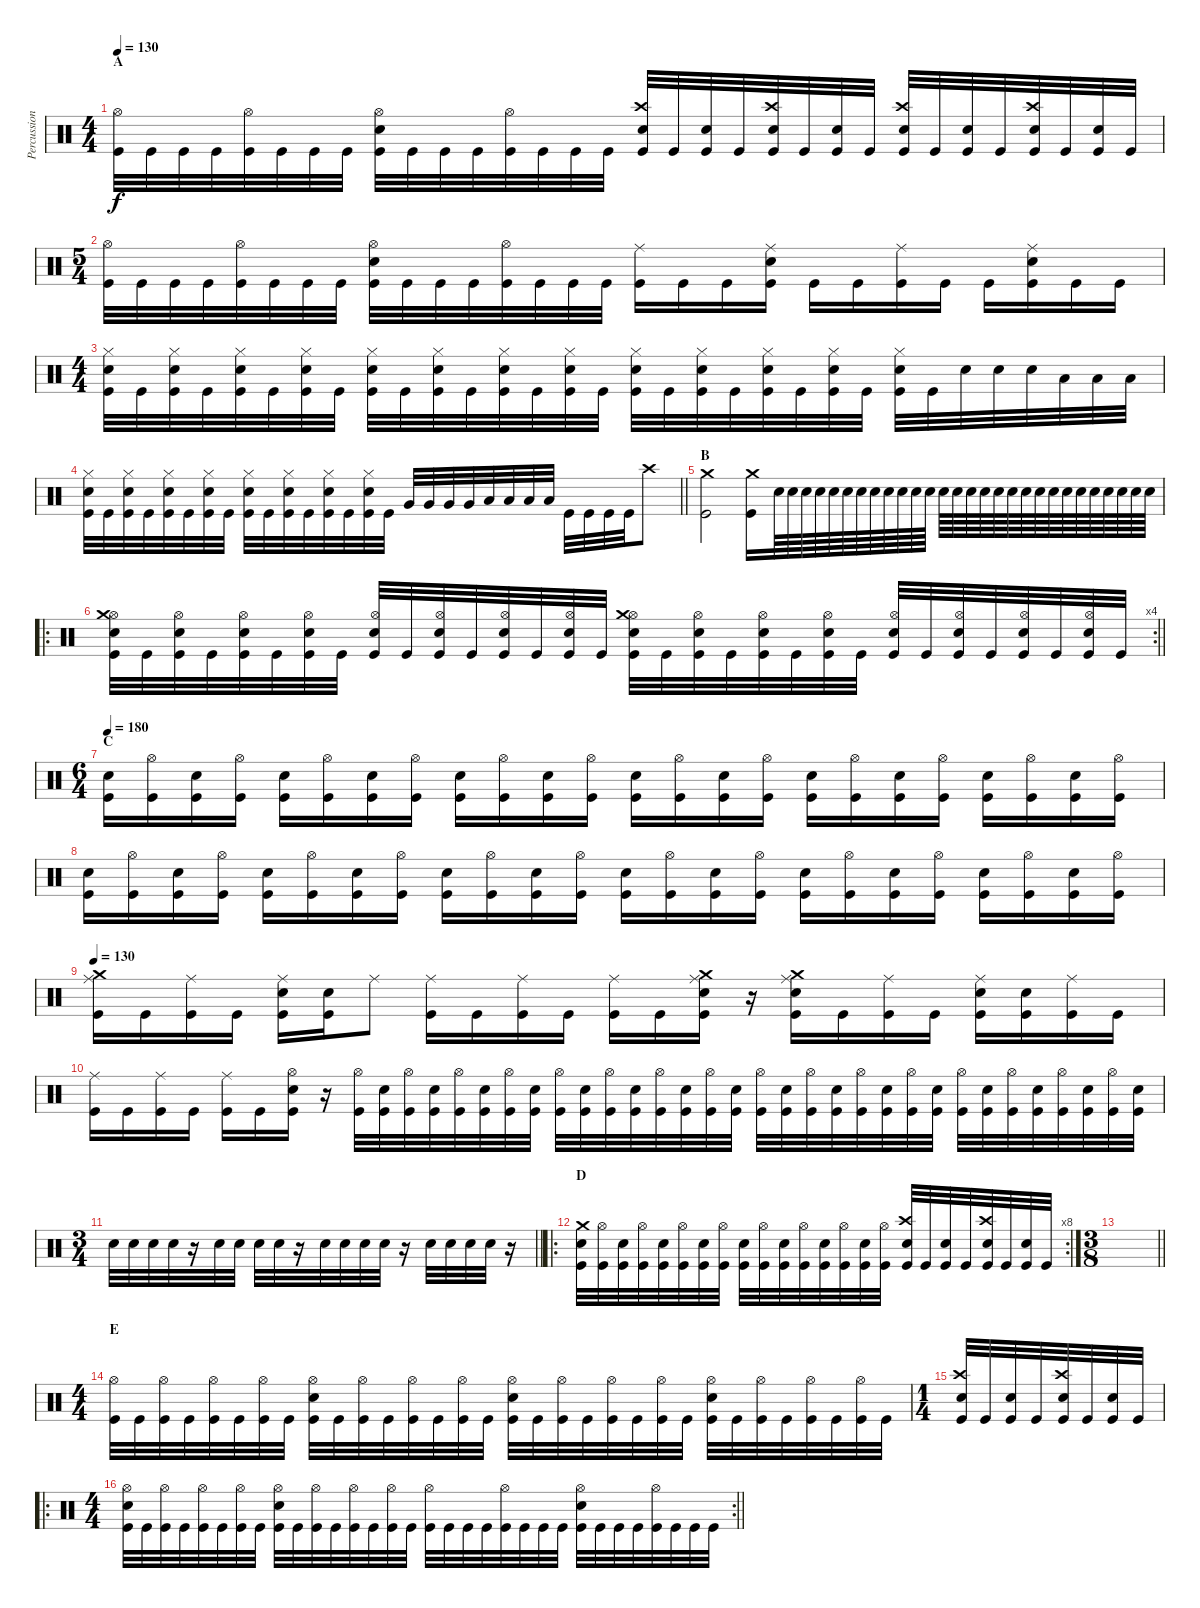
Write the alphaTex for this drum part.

\track ("Percussion" "Percussion") {instrument percussion}
\staff {score}
\articulation defaults
\ts (4 4)
\section ("" "A")
\tempo 130
\clef neutral
\ks c
("Kick (hit)" "Hi-Hat (open)").32{dy f} "Kick (hit)".32 "Kick (hit)".32 "Kick (hit)".32 ("Kick (hit)" "Hi-Hat (open)").32 "Kick (hit)".32 "Kick (hit)".32 "Kick (hit)".32 ("Kick (hit)" "Hi-Hat (open)" "Electric Snare (hit)").32 "Kick (hit)".32 "Kick (hit)".32 "Kick (hit)".32 ("Kick (hit)" "Hi-Hat (open)").32 "Kick (hit)".32 "Kick (hit)".32 "Kick (hit)".32 ("Kick (hit)" "Crash high (hit)" "Snare (hit) 2").32 "Kick (hit)".32 ("Kick (hit)" "Snare (hit) 2").32 "Kick (hit)".32 ("Kick (hit)" "Crash high (hit)" "Snare (hit) 2").32 "Kick (hit)".32 ("Kick (hit)" "Snare (hit) 2").32 "Kick (hit)".32 ("Kick (hit)" "Crash high (hit)" "Snare (hit) 2").32 "Kick (hit)".32 ("Kick (hit)" "Snare (hit) 2").32 "Kick (hit)".32 ("Kick (hit)" "Crash high (hit)" "Snare (hit) 2").32 "Kick (hit)".32 ("Kick (hit)" "Snare (hit) 2").32 "Kick (hit)".32 |
\ts (5 4)
("Kick (hit)" "Hi-Hat (open)").32 "Kick (hit)".32 "Kick (hit)".32 "Kick (hit)".32 ("Kick (hit)" "Hi-Hat (open)").32 "Kick (hit)".32 "Kick (hit)".32 "Kick (hit)".32 ("Kick (hit)" "Hi-Hat (open)" "Electric Snare (hit)").32 "Kick (hit)".32 "Kick (hit)".32 "Kick (hit)".32 ("Kick (hit)" "Hi-Hat (open)").32 "Kick (hit)".32 "Kick (hit)".32 "Kick (hit)".32 ("Kick (hit)" "Ride (middle)").16 "Kick (hit)".16 "Kick (hit)".16 ("Kick (hit)" "Ride (middle)" "Snare (hit) 2").16 "Kick (hit)".16 "Kick (hit)".16 ("Kick (hit)" "Ride (middle)").16 "Kick (hit)".16 "Kick (hit)".16 ("Kick (hit)" "Ride (middle)" "Snare (hit) 2").16 "Kick (hit)".16 "Kick (hit)".16 |
\ts (4 4)
("Kick (hit)" "Snare (hit) 2" "Hi-Hat (closed)").32 "Kick (hit)".32 ("Kick (hit)" "Snare (hit) 2" "Hi-Hat (closed)").32 "Kick (hit)".32 ("Kick (hit)" "Snare (hit) 2" "Hi-Hat (closed)").32 "Kick (hit)".32 ("Kick (hit)" "Snare (hit) 2" "Hi-Hat (closed)").32 "Kick (hit)".32 ("Kick (hit)" "Snare (hit) 2" "Hi-Hat (closed)").32 "Kick (hit)".32 ("Kick (hit)" "Snare (hit) 2" "Hi-Hat (closed)").32 "Kick (hit)".32 ("Kick (hit)" "Snare (hit) 2" "Hi-Hat (closed)").32 "Kick (hit)".32 ("Kick (hit)" "Snare (hit) 2" "Hi-Hat (closed)").32 "Kick (hit)".32 ("Kick (hit)" "Snare (hit) 2" "Hi-Hat (closed)").32 "Kick (hit)".32 ("Kick (hit)" "Snare (hit) 2" "Hi-Hat (closed)").32 "Kick (hit)".32 ("Kick (hit)" "Snare (hit) 2" "Hi-Hat (closed)").32 "Kick (hit)".32 ("Kick (hit)" "Snare (hit) 2" "Hi-Hat (closed)").32 "Kick (hit)".32 ("Kick (hit)" "Snare (hit) 2" "Hi-Hat (closed)").32 "Kick (hit)".32 "Snare (hit) 2".32 "Snare (hit) 2".32 "Snare (hit) 2".32 "Low Floor Tom (hit)".32 "Low Floor Tom (hit)".32 "Low Floor Tom (hit)".32 |
\barLineRight lightlight
("Kick (hit)" "Snare (hit) 2" "Hi-Hat (closed)").32 "Kick (hit)".32 ("Kick (hit)" "Snare (hit) 2" "Hi-Hat (closed)").32 "Kick (hit)".32 ("Kick (hit)" "Snare (hit) 2" "Hi-Hat (closed)").32 "Kick (hit)".32 ("Kick (hit)" "Snare (hit) 2" "Hi-Hat (closed)").32 "Kick (hit)".32 ("Kick (hit)" "Snare (hit) 2" "Hi-Hat (closed)").32 "Kick (hit)".32 ("Kick (hit)" "Snare (hit) 2" "Hi-Hat (closed)").32 "Kick (hit)".32 ("Kick (hit)" "Snare (hit) 2" "Hi-Hat (closed)").32 "Kick (hit)".32 ("Kick (hit)" "Snare (hit) 2" "Hi-Hat (closed)").32 "Kick (hit)".32 "Very Low Tom (hit)".32 "Very Low Tom (hit)".32 "Very Low Tom (hit)".32 "Very Low Tom (hit)".32 "Low Floor Tom (hit)".32 "Low Floor Tom (hit)".32 "Low Floor Tom (hit)".32 "Low Floor Tom (hit)".32 "Kick (hit)".32 "Kick (hit)".32 "Kick (hit)".32 "Kick (hit)".32 "Crash high (hit)".8 |
\section ("" "B")
("Kick (hit)" "Crash medium (hit)").2 ("Kick (hit)" "Crash medium (hit)").16 "Snare (hit) 2".64{volume 4} "Snare (hit) 2".64{volume 15} "Snare (hit) 2".64 "Snare (hit) 2".64 "Snare (hit) 2".64 "Snare (hit) 2".64 "Snare (hit) 2".64 "Snare (hit) 2".64 "Snare (hit) 2".64 "Snare (hit) 2".64 "Snare (hit) 2".64 "Snare (hit) 2".64 "Snare (hit) 2".64 "Snare (hit) 2".64 "Snare (hit) 2".64 "Snare (hit) 2".64 "Snare (hit) 2".64 "Snare (hit) 2".64 "Snare (hit) 2".64 "Snare (hit) 2".64 "Snare (hit) 2".64 "Snare (hit) 2".64 "Snare (hit) 2".64 "Snare (hit) 2".64 "Snare (hit) 2".64 "Snare (hit) 2".64 "Snare (hit) 2".64 "Snare (hit) 2".64 |
\ro
\rc 4
\barLineRight lightlight
("Kick (hit)" "Hi-Hat (open)" "Snare (hit) 2" "Crash medium (hit)").32 "Kick (hit)".32 ("Kick (hit)" "Snare (hit) 2" "Hi-Hat (open)").32 "Kick (hit)".32 ("Kick (hit)" "Snare (hit) 2" "Hi-Hat (open)").32 "Kick (hit)".32 ("Kick (hit)" "Snare (hit) 2" "Hi-Hat (open)").32 "Kick (hit)".32 ("Kick (hit)" "Snare (hit) 2" "Hi-Hat (open)").32 "Kick (hit)".32 ("Kick (hit)" "Snare (hit) 2" "Hi-Hat (open)").32 "Kick (hit)".32 ("Kick (hit)" "Snare (hit) 2" "Hi-Hat (open)").32 "Kick (hit)".32 ("Kick (hit)" "Snare (hit) 2" "Hi-Hat (open)").32 "Kick (hit)".32 ("Kick (hit)" "Hi-Hat (open)" "Snare (hit) 2" "Crash medium (hit)").32 "Kick (hit)".32 ("Kick (hit)" "Snare (hit) 2" "Hi-Hat (open)").32 "Kick (hit)".32 ("Kick (hit)" "Snare (hit) 2" "Hi-Hat (open)").32 "Kick (hit)".32 ("Kick (hit)" "Snare (hit) 2" "Hi-Hat (open)").32 "Kick (hit)".32 ("Kick (hit)" "Snare (hit) 2" "Hi-Hat (open)").32 "Kick (hit)".32 ("Kick (hit)" "Snare (hit) 2" "Hi-Hat (open)").32 "Kick (hit)".32 ("Kick (hit)" "Snare (hit) 2" "Hi-Hat (open)").32 "Kick (hit)".32 ("Kick (hit)" "Snare (hit) 2" "Hi-Hat (open)").32 "Kick (hit)".32 |
\ts (6 4)
\section ("" "C")
\tempo 180
("Kick (hit)" "Snare (hit) 2").16 ("Kick (hit)" "Hi-Hat (open)").16 ("Kick (hit)" "Snare (hit) 2").16 ("Kick (hit)" "Hi-Hat (open)").16 ("Kick (hit)" "Snare (hit) 2").16 ("Kick (hit)" "Hi-Hat (open)").16 ("Kick (hit)" "Snare (hit) 2").16 ("Kick (hit)" "Hi-Hat (open)").16 ("Kick (hit)" "Snare (hit) 2").16 ("Kick (hit)" "Hi-Hat (open)").16 ("Kick (hit)" "Snare (hit) 2").16 ("Kick (hit)" "Hi-Hat (open)").16 ("Kick (hit)" "Snare (hit) 2").16 ("Kick (hit)" "Hi-Hat (open)").16 ("Kick (hit)" "Snare (hit) 2").16 ("Kick (hit)" "Hi-Hat (open)").16 ("Kick (hit)" "Snare (hit) 2").16 ("Kick (hit)" "Hi-Hat (open)").16 ("Kick (hit)" "Snare (hit) 2").16 ("Kick (hit)" "Hi-Hat (open)").16 ("Kick (hit)" "Snare (hit) 2").16 ("Kick (hit)" "Hi-Hat (open)").16 ("Kick (hit)" "Snare (hit) 2").16 ("Kick (hit)" "Hi-Hat (open)").16 |
("Kick (hit)" "Snare (hit) 2").16 ("Kick (hit)" "Hi-Hat (open)").16 ("Kick (hit)" "Snare (hit) 2").16 ("Kick (hit)" "Hi-Hat (open)").16 ("Kick (hit)" "Snare (hit) 2").16 ("Kick (hit)" "Hi-Hat (open)").16 ("Kick (hit)" "Snare (hit) 2").16 ("Kick (hit)" "Hi-Hat (open)").16 ("Kick (hit)" "Snare (hit) 2").16 ("Kick (hit)" "Hi-Hat (open)").16 ("Kick (hit)" "Snare (hit) 2").16 ("Kick (hit)" "Hi-Hat (open)").16 ("Kick (hit)" "Snare (hit) 2").16 ("Kick (hit)" "Hi-Hat (open)").16 ("Kick (hit)" "Snare (hit) 2").16 ("Kick (hit)" "Hi-Hat (open)").16 ("Kick (hit)" "Snare (hit) 2").16 ("Kick (hit)" "Hi-Hat (open)").16 ("Kick (hit)" "Snare (hit) 2").16 ("Kick (hit)" "Hi-Hat (open)").16 ("Kick (hit)" "Snare (hit) 2").16 ("Kick (hit)" "Hi-Hat (open)").16 ("Kick (hit)" "Snare (hit) 2").16 ("Kick (hit)" "Hi-Hat (open)").16 |
\tempo 130
("Kick (hit)" "Ride (middle)" "Crash medium (hit)").16 "Kick (hit)".16 ("Kick (hit)" "Ride (middle)").16 "Kick (hit)".16 ("Kick (hit)" "Ride (middle)" "Snare (hit) 2").16 ("Kick (hit)" "Snare (hit) 2").16 "Ride (middle)".8 ("Kick (hit)" "Ride (middle)").16 "Kick (hit)".16 ("Kick (hit)" "Ride (middle)").16 "Kick (hit)".16 ("Kick (hit)" "Ride (middle)").16 "Kick (hit)".16 ("Kick (hit)" "Ride (middle)" "Snare (hit) 2" "Crash medium (hit)").16 r.16 ("Kick (hit)" "Ride (middle)" "Snare (hit) 2" "Crash medium (hit)").16 "Kick (hit)".16 ("Kick (hit)" "Ride (middle)").16 "Kick (hit)".16 ("Kick (hit)" "Ride (middle)" "Snare (hit) 2").16 ("Kick (hit)" "Snare (hit) 2").16 ("Kick (hit)" "Ride (middle)").16 "Kick (hit)".16 |
("Kick (hit)" "Ride (middle)").16 "Kick (hit)".16 ("Kick (hit)" "Ride (middle)").16 "Kick (hit)".16 ("Kick (hit)" "Ride (middle)").16 "Kick (hit)".16 ("Kick (hit)" "Hi-Hat (open)" "Snare (hit) 2").16 r.16 ("Kick (hit)" "Hi-Hat (open)").32 ("Kick (hit)" "Snare (hit) 2").32 ("Kick (hit)" "Hi-Hat (open)").32 ("Kick (hit)" "Snare (hit) 2").32 ("Kick (hit)" "Hi-Hat (open)").32 ("Kick (hit)" "Snare (hit) 2").32 ("Kick (hit)" "Hi-Hat (open)").32 ("Kick (hit)" "Snare (hit) 2").32 ("Kick (hit)" "Hi-Hat (open)").32 ("Kick (hit)" "Snare (hit) 2").32 ("Kick (hit)" "Hi-Hat (open)").32 ("Kick (hit)" "Snare (hit) 2").32 ("Kick (hit)" "Hi-Hat (open)").32 ("Kick (hit)" "Snare (hit) 2").32 ("Kick (hit)" "Hi-Hat (open)").32 ("Kick (hit)" "Snare (hit) 2").32 ("Kick (hit)" "Hi-Hat (open)").32 ("Kick (hit)" "Snare (hit) 2").32 ("Kick (hit)" "Hi-Hat (open)").32 ("Kick (hit)" "Snare (hit) 2").32 ("Kick (hit)" "Hi-Hat (open)").32 ("Kick (hit)" "Snare (hit) 2").32 ("Kick (hit)" "Hi-Hat (open)").32 ("Kick (hit)" "Snare (hit) 2").32 ("Kick (hit)" "Hi-Hat (open)").32 ("Kick (hit)" "Snare (hit) 2").32 ("Kick (hit)" "Hi-Hat (open)").32 ("Kick (hit)" "Snare (hit) 2").32 ("Kick (hit)" "Hi-Hat (open)").32 ("Kick (hit)" "Snare (hit) 2").32 ("Kick (hit)" "Hi-Hat (open)").32 ("Kick (hit)" "Snare (hit) 2").32 |
\ts (3 4)
\barLineRight lightlight "Snare (hit) 2".32 "Snare (hit) 2".32 "Snare (hit) 2".32 "Snare (hit) 2".32
r.16 "Snare (hit) 2".32 "Snare (hit) 2".32 "Snare (hit) 2".32 "Snare (hit) 2".32 r.16 "Snare (hit) 2".32 "Snare (hit) 2".32 "Snare (hit) 2".32 "Snare (hit) 2".32 r.16 "Snare (hit) 2".32 "Snare (hit) 2".32 "Snare (hit) 2".32 "Snare (hit) 2".32 r.16 |
\ro
\rc 8
\section ("" "D")
("Kick (hit)" "Snare (hit) 2" "Crash medium (hit)").32 ("Kick (hit)" "Hi-Hat (open)").32 ("Kick (hit)" "Snare (hit) 2").32 ("Kick (hit)" "Hi-Hat (open)").32 ("Kick (hit)" "Snare (hit) 2").32 ("Kick (hit)" "Hi-Hat (open)").32 ("Kick (hit)" "Snare (hit) 2").32 ("Kick (hit)" "Hi-Hat (open)").32 ("Kick (hit)" "Snare (hit) 2").32 ("Kick (hit)" "Hi-Hat (open)").32 ("Kick (hit)" "Snare (hit) 2").32 ("Kick (hit)" "Hi-Hat (open)").32 ("Kick (hit)" "Snare (hit) 2").32 ("Kick (hit)" "Hi-Hat (open)").32 ("Kick (hit)" "Snare (hit) 2").32 ("Kick (hit)" "Hi-Hat (open)").32 ("Kick (hit)" "Snare (hit) 2" "Crash high (hit)").32 "Kick (hit)".32 ("Kick (hit)" "Snare (hit) 2").32 "Kick (hit)".32 ("Kick (hit)" "Snare (hit) 2" "Crash high (hit)").32 "Kick (hit)".32 ("Kick (hit)" "Snare (hit) 2").32 "Kick (hit)".32 |
\ts (3 8)
\barLineRight lightlight
|
\ts (4 4)
\section ("" "E")
("Kick (hit)" "Hi-Hat (open)").32 "Kick (hit)".32 ("Kick (hit)" "Hi-Hat (open)").32 "Kick (hit)".32 ("Kick (hit)" "Hi-Hat (open)").32 "Kick (hit)".32 ("Kick (hit)" "Hi-Hat (open)").32 "Kick (hit)".32 ("Kick (hit)" "Hi-Hat (open)" "Snare (hit) 2").32 "Kick (hit)".32 ("Kick (hit)" "Hi-Hat (open)").32 "Kick (hit)".32 ("Kick (hit)" "Hi-Hat (open)").32 "Kick (hit)".32 ("Kick (hit)" "Hi-Hat (open)").32 "Kick (hit)".32 ("Kick (hit)" "Hi-Hat (open)" "Snare (hit) 2").32 "Kick (hit)".32 ("Kick (hit)" "Hi-Hat (open)").32 "Kick (hit)".32 ("Kick (hit)" "Hi-Hat (open)").32 "Kick (hit)".32 ("Kick (hit)" "Hi-Hat (open)").32 "Kick (hit)".32 ("Kick (hit)" "Hi-Hat (open)" "Snare (hit) 2").32 "Kick (hit)".32 ("Kick (hit)" "Hi-Hat (open)").32 "Kick (hit)".32 ("Kick (hit)" "Hi-Hat (open)").32 "Kick (hit)".32 ("Kick (hit)" "Hi-Hat (open)").32 "Kick (hit)".32 |
\ts (1 4)
("Kick (hit)" "Crash high (hit)" "Snare (hit) 2").32 "Kick (hit)".32 ("Kick (hit)" "Snare (hit) 2").32 "Kick (hit)".32 ("Kick (hit)" "Crash high (hit)" "Snare (hit) 2").32 "Kick (hit)".32 ("Kick (hit)" "Snare (hit) 2").32 "Kick (hit)".32 |
\ro
\rc 2
\ts (4 4)
\barLineRight lightlight
("Kick (hit)" "Hi-Hat (open)" "Snare (hit) 2").32 "Kick (hit)".32 ("Kick (hit)" "Hi-Hat (open)").32 "Kick (hit)".32 ("Kick (hit)" "Hi-Hat (open)").32 "Kick (hit)".32 ("Kick (hit)" "Hi-Hat (open)").32 "Kick (hit)".32 ("Kick (hit)" "Hi-Hat (open)" "Snare (hit) 2").32 "Kick (hit)".32 ("Kick (hit)" "Hi-Hat (open)").32 "Kick (hit)".32 ("Kick (hit)" "Hi-Hat (open)").32 "Kick (hit)".32 ("Kick (hit)" "Hi-Hat (open)").32 "Kick (hit)".32 ("Kick (hit)" "Hi-Hat (open)").32 "Kick (hit)".32 "Kick (hit)".32 "Kick (hit)".32 ("Kick (hit)" "Hi-Hat (open)").32 "Kick (hit)".32 "Kick (hit)".32 "Kick (hit)".32 ("Kick (hit)" "Hi-Hat (open)" "Snare (hit) 2").32 "Kick (hit)".32 "Kick (hit)".32 "Kick (hit)".32 ("Kick (hit)" "Hi-Hat (open)").32 "Kick (hit)".32 "Kick (hit)".32 "Kick (hit)".32
